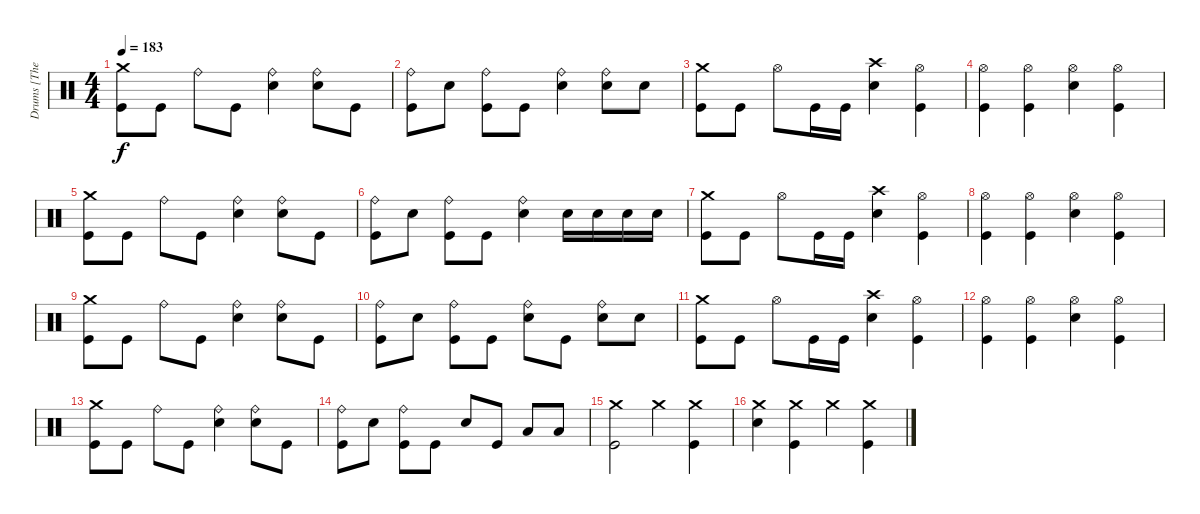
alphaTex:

\track ("Drums [The Rev]" "Drums [The") {instrument percussion}
\staff {score}
\articulation defaults
\ts (4 4)
\tempo 183
\clef neutral
\ks c
("Crash medium (hit)" "Kick (hit)").8{dy f} "Kick (hit)".8 "Ride (bell)".8 "Kick (hit)".8 ("Ride (bell)" "Snare (hit) 2").4 ("Ride (bell)" "Snare (hit) 2").8 "Kick (hit)".8 |
("Ride (bell)" "Kick (hit)").8 "Snare (hit) 2".8 ("Ride (bell)" "Kick (hit)").8 "Kick (hit)".8 ("Ride (bell)" "Snare (hit) 2").4 ("Ride (bell)" "Snare (hit) 2").8 "Snare (hit) 2".8 |
("Crash medium (hit)" "Kick (hit)").8 "Kick (hit)".8 "Hi-Hat (open)".8 "Kick (hit)".16 "Kick (hit)".16 ("Crash high (hit)" "Snare (hit) 2").4 ("Hi-Hat (open)" "Kick (hit)").4 |
("Hi-Hat (open)" "Kick (hit)").4 ("Hi-Hat (open)" "Kick (hit)").4 ("Hi-Hat (open)" "Snare (hit) 2").4 ("Hi-Hat (open)" "Kick (hit)").4 |
("Crash medium (hit)" "Kick (hit)").8 "Kick (hit)".8 "Ride (bell)".8 "Kick (hit)".8 ("Ride (bell)" "Snare (hit) 2").4 ("Ride (bell)" "Snare (hit) 2").8 "Kick (hit)".8 |
("Ride (bell)" "Kick (hit)").8 "Snare (hit) 2".8 ("Ride (bell)" "Kick (hit)").8 "Kick (hit)".8 ("Ride (bell)" "Snare (hit) 2").4 "Snare (hit) 2".16 "Snare (hit) 2".16 "Snare (hit) 2".16 "Snare (hit) 2".16 |
("Crash medium (hit)" "Kick (hit)").8 "Kick (hit)".8 "Hi-Hat (open)".8 "Kick (hit)".16 "Kick (hit)".16 ("Crash high (hit)" "Snare (hit) 2").4 ("Hi-Hat (open)" "Kick (hit)").4 |
("Hi-Hat (open)" "Kick (hit)").4 ("Hi-Hat (open)" "Kick (hit)").4 ("Hi-Hat (open)" "Snare (hit) 2").4 ("Hi-Hat (open)" "Kick (hit)").4 |
("Crash medium (hit)" "Kick (hit)").8 "Kick (hit)".8 "Ride (bell)".8 "Kick (hit)".8 ("Ride (bell)" "Snare (hit) 2").4 ("Ride (bell)" "Snare (hit) 2").8 "Kick (hit)".8 |
("Ride (bell)" "Kick (hit)").8 "Snare (hit) 2".8 ("Ride (bell)" "Kick (hit)").8 "Kick (hit)".8 ("Ride (bell)" "Snare (hit) 2").8 "Kick (hit)".8 ("Ride (bell)" "Snare (hit) 2").8 "Snare (hit) 2".8 |
("Crash medium (hit)" "Kick (hit)").8 "Kick (hit)".8 "Hi-Hat (open)".8 "Kick (hit)".16 "Kick (hit)".16 ("Crash high (hit)" "Snare (hit) 2").4 ("Hi-Hat (open)" "Kick (hit)").4 |
("Hi-Hat (open)" "Kick (hit)").4 ("Hi-Hat (open)" "Kick (hit)").4 ("Hi-Hat (open)" "Snare (hit) 2").4 ("Hi-Hat (open)" "Kick (hit)").4 |
("Crash medium (hit)" "Kick (hit)").8 "Kick (hit)".8 "Ride (bell)".8 "Kick (hit)".8 ("Ride (bell)" "Snare (hit) 2").4 ("Ride (bell)" "Snare (hit) 2").8 "Kick (hit)".8 |
("Ride (bell)" "Kick (hit)").8 "Snare (hit) 2".8 ("Ride (bell)" "Kick (hit)").8 "Kick (hit)".8 "Snare (hit) 2".8 "Kick (hit)".8 "Low Floor Tom (hit)".8 "Low Floor Tom (hit)".8 |
("Crash medium (hit)" "Kick (hit)").2 "Crash medium (hit)".4 ("Crash medium (hit)" "Kick (hit)").4 |
("Crash medium (hit)" "Snare (hit) 2").4 ("Crash medium (hit)" "Kick (hit)").4 "Crash medium (hit)".4 ("Crash medium (hit)" "Kick (hit)").4
